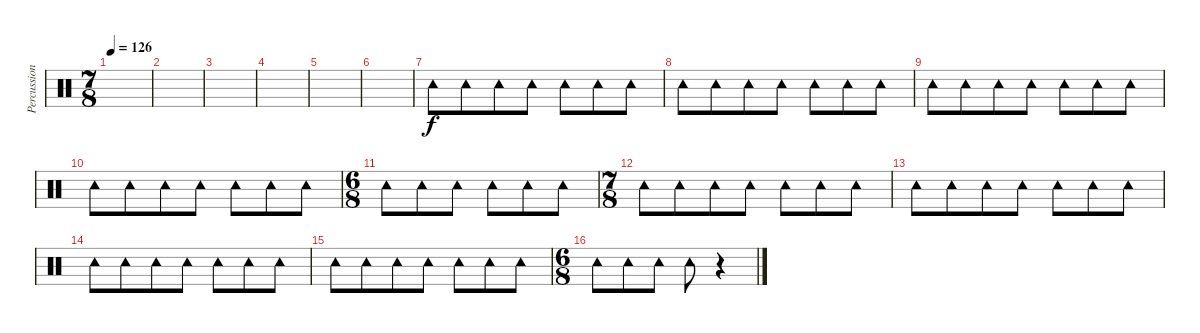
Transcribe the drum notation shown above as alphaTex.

\track ("Percussion" "Percussion") {instrument percussion}
\staff {score}
\articulation defaults
\ts (7 8)
\tempo 126
\clef neutral
\ks c
|
|
|
|
|
|
"Tambourine (hit)".8{volume 4} "Tambourine (hit)".8 "Tambourine (hit)".8 "Tambourine (hit)".8 "Tambourine (hit)".8 "Tambourine (hit)".8 "Tambourine (hit)".8 |
"Tambourine (hit)".8 "Tambourine (hit)".8 "Tambourine (hit)".8 "Tambourine (hit)".8 "Tambourine (hit)".8 "Tambourine (hit)".8 "Tambourine (hit)".8 |
"Tambourine (hit)".8 "Tambourine (hit)".8 "Tambourine (hit)".8 "Tambourine (hit)".8 "Tambourine (hit)".8 "Tambourine (hit)".8 "Tambourine (hit)".8 |
"Tambourine (hit)".8 "Tambourine (hit)".8 "Tambourine (hit)".8 "Tambourine (hit)".8 "Tambourine (hit)".8 "Tambourine (hit)".8 "Tambourine (hit)".8 |
\ts (6 8)
"Tambourine (hit)".8 "Tambourine (hit)".8 "Tambourine (hit)".8 "Tambourine (hit)".8 "Tambourine (hit)".8 "Tambourine (hit)".8 |
\ts (7 8)
"Tambourine (hit)".8 "Tambourine (hit)".8 "Tambourine (hit)".8 "Tambourine (hit)".8 "Tambourine (hit)".8 "Tambourine (hit)".8 "Tambourine (hit)".8 |
"Tambourine (hit)".8 "Tambourine (hit)".8 "Tambourine (hit)".8 "Tambourine (hit)".8 "Tambourine (hit)".8 "Tambourine (hit)".8 "Tambourine (hit)".8 |
"Tambourine (hit)".8 "Tambourine (hit)".8 "Tambourine (hit)".8 "Tambourine (hit)".8 "Tambourine (hit)".8 "Tambourine (hit)".8 "Tambourine (hit)".8 |
"Tambourine (hit)".8 "Tambourine (hit)".8 "Tambourine (hit)".8 "Tambourine (hit)".8 "Tambourine (hit)".8 "Tambourine (hit)".8 "Tambourine (hit)".8 |
\ts (6 8)
"Tambourine (hit)".8 "Tambourine (hit)".8 "Tambourine (hit)".8 "Tambourine (hit)".8 r.4
